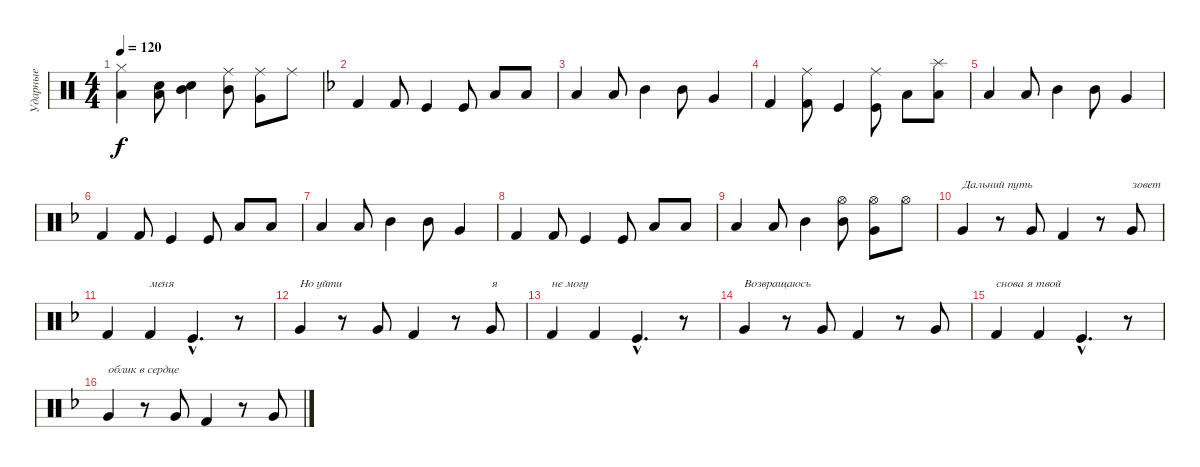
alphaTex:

\track ("Ударные" "Ударные") {instrument percussion}
\staff {score}
\articulation defaults
\ts (4 4)
\tempo 120
\clef neutral
\ks c
("Low Tom (hit)" "Hi-Hat (closed)").4{dy f} ("Low Tom (hit)" "Metronome (bell)").8 ("Mid Tom (hit)" "Metronome (bell)").4 ("Ride (middle)" "Mid Tom (hit)").8 ("Ride (middle)" "Very Low Tom (hit)").8 "Ride (middle)".8 |
\ks f "Kick (hit) 2".4 "Kick (hit) 2".8 "Kick (hit)".4 "Kick (hit)".8 "Low Tom (hit)".8 "Low Tom (hit)".8
|
"Low Tom (hit)".4 "Low Tom (hit)".8 "Mid Tom (hit)".4 "Mid Tom (hit)".8 "Very Low Tom (hit)".4 |
"Kick (hit) 2".4 ("Kick (hit) 2" "Ride (middle)").8 "Kick (hit)".4 ("Kick (hit)" "Ride (middle)").8 "Low Tom (hit)".8 ("Low Tom (hit)" "Splash (hit)").8 |
"Low Tom (hit)".4 "Low Tom (hit)".8 "Mid Tom (hit)".4 "Mid Tom (hit)".8 "Very Low Tom (hit)".4 |
"Kick (hit) 2".4 "Kick (hit) 2".8 "Kick (hit)".4 "Kick (hit)".8 "Low Tom (hit)".8 "Low Tom (hit)".8 |
"Low Tom (hit)".4 "Low Tom (hit)".8 "Mid Tom (hit)".4 "Mid Tom (hit)".8 "Very Low Tom (hit)".4 |
"Kick (hit) 2".4 "Kick (hit) 2".8 "Kick (hit)".4 "Kick (hit)".8 "Low Tom (hit)".8 "Low Tom (hit)".8 |
"Low Tom (hit)".4 "Low Tom (hit)".8 "Mid Tom (hit)".4 ("Hi-Hat (open)" "Mid Tom (hit)").8 ("Hi-Hat (open)" "Very Low Tom (hit)").8 "Hi-Hat (open)".8 |
"Very Low Tom (hit)".4{txt "Дальний путь" volume 12} r.8 "Very Low Tom (hit)".8 "Kick (hit) 2".4 r.8 "Very Low Tom (hit)".8{txt "зовет"} |
"Kick (hit) 2".4 "Kick (hit) 2".4{txt "меня"} "Kick (hit)"{hac}.4{d} r.8 |
"Very Low Tom (hit)".4{txt "Но уйти"} r.8 "Very Low Tom (hit)".8 "Kick (hit) 2".4 r.8 "Very Low Tom (hit)".8{txt "я"} |
"Kick (hit) 2".4{txt "не могу"} "Kick (hit) 2".4 "Kick (hit)"{hac}.4{d} r.8 |
"Very Low Tom (hit)".4{txt "Возвращаюсь"} r.8 "Very Low Tom (hit)".8 "Kick (hit) 2".4 r.8 "Very Low Tom (hit)".8 |
"Kick (hit) 2".4{txt "снова я твой"} "Kick (hit) 2".4 "Kick (hit)"{hac}.4{d} r.8 |
"Very Low Tom (hit)".4{txt "облик в сердце"} r.8 "Very Low Tom (hit)".8 "Kick (hit) 2".4 r.8 "Very Low Tom (hit)".8
